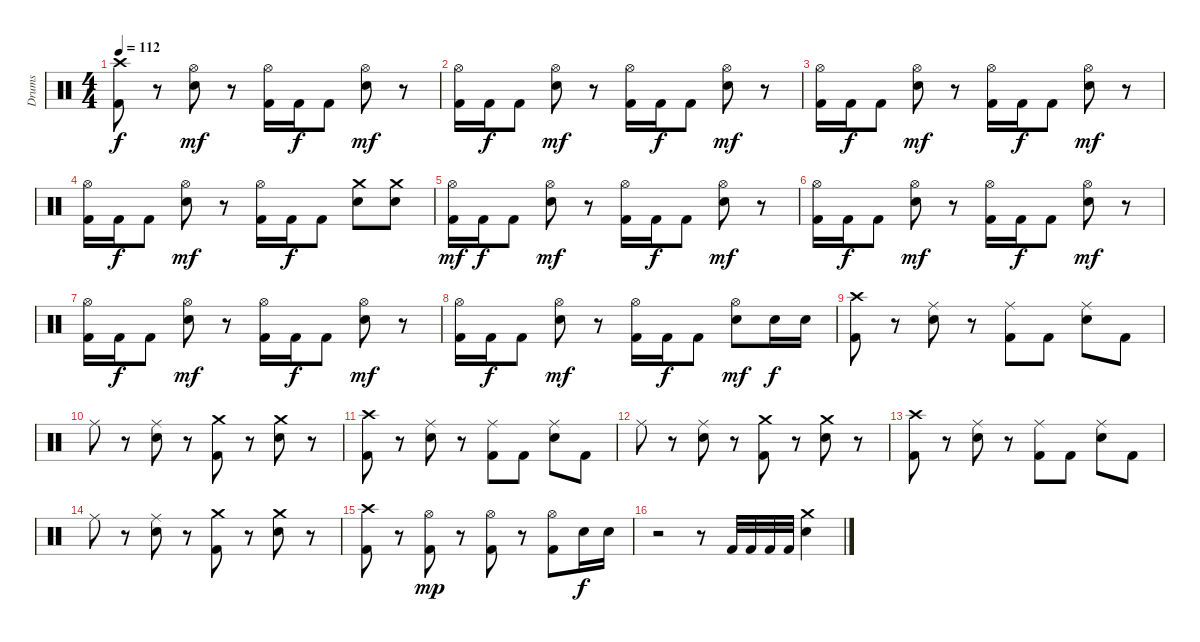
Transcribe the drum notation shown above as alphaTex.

\track ("Drums" "Drums") {instrument percussion}
\staff {score}
\articulation defaults
\ts (4 4)
\tempo 112
\clef neutral
\ks c
("Crash high (hit)" "Kick (hit) 2").8{dy f} r.8 ("Hi-Hat (open)" "Electric Snare (hit)").8{dy mf} r.8 ("Hi-Hat (open)" "Kick (hit) 2").16 "Kick (hit) 2".16{dy f} "Kick (hit) 2".8 ("Hi-Hat (open)" "Electric Snare (hit)").8{dy mf} r.8 |
("Hi-Hat (open)" "Kick (hit) 2").16 "Kick (hit) 2".16{dy f} "Kick (hit) 2".8 ("Hi-Hat (open)" "Electric Snare (hit)").8{dy mf} r.8 ("Hi-Hat (open)" "Kick (hit) 2").16 "Kick (hit) 2".16{dy f} "Kick (hit) 2".8 ("Hi-Hat (open)" "Electric Snare (hit)").8{dy mf} r.8 |
("Hi-Hat (open)" "Kick (hit) 2").16 "Kick (hit) 2".16{dy f} "Kick (hit) 2".8 ("Hi-Hat (open)" "Electric Snare (hit)").8{dy mf} r.8 ("Hi-Hat (open)" "Kick (hit) 2").16 "Kick (hit) 2".16{dy f} "Kick (hit) 2".8 ("Hi-Hat (open)" "Electric Snare (hit)").8{dy mf} r.8 |
("Hi-Hat (open)" "Kick (hit) 2").16 "Kick (hit) 2".16{dy f} "Kick (hit) 2".8 ("Hi-Hat (open)" "Electric Snare (hit)").8{dy mf} r.8 ("Hi-Hat (open)" "Kick (hit) 2").16 "Kick (hit) 2".16{dy f} "Kick (hit) 2".8 ("Crash medium (hit)" "Electric Snare (hit)").8 ("Crash medium (hit)" "Electric Snare (hit)").8 |
("Hi-Hat (open)" "Kick (hit) 2").16{dy mf} "Kick (hit) 2".16{dy f} "Kick (hit) 2".8 ("Hi-Hat (open)" "Electric Snare (hit)").8{dy mf} r.8 ("Hi-Hat (open)" "Kick (hit) 2").16 "Kick (hit) 2".16{dy f} "Kick (hit) 2".8 ("Hi-Hat (open)" "Electric Snare (hit)").8{dy mf} r.8 |
("Hi-Hat (open)" "Kick (hit) 2").16 "Kick (hit) 2".16{dy f} "Kick (hit) 2".8 ("Hi-Hat (open)" "Electric Snare (hit)").8{dy mf} r.8 ("Hi-Hat (open)" "Kick (hit) 2").16 "Kick (hit) 2".16{dy f} "Kick (hit) 2".8 ("Hi-Hat (open)" "Electric Snare (hit)").8{dy mf} r.8 |
("Hi-Hat (open)" "Kick (hit) 2").16 "Kick (hit) 2".16{dy f} "Kick (hit) 2".8 ("Hi-Hat (open)" "Electric Snare (hit)").8{dy mf} r.8 ("Hi-Hat (open)" "Kick (hit) 2").16 "Kick (hit) 2".16{dy f} "Kick (hit) 2".8 ("Hi-Hat (open)" "Electric Snare (hit)").8{dy mf} r.8 |
("Hi-Hat (open)" "Kick (hit) 2").16 "Kick (hit) 2".16{dy f} "Kick (hit) 2".8 ("Hi-Hat (open)" "Electric Snare (hit)").8{dy mf} r.8 ("Hi-Hat (open)" "Kick (hit) 2").16 "Kick (hit) 2".16{dy f} "Kick (hit) 2".8 ("Hi-Hat (open)" "Electric Snare (hit)").8{dy mf} "Electric Snare (hit)".16{dy f} "Electric Snare (hit)".16 |
("Crash high (hit)" "Kick (hit) 2").8 r.8 ("Ride (middle)" "Electric Snare (hit)").8 r.8 ("Ride (middle)" "Kick (hit) 2").8 "Kick (hit) 2".8 ("Ride (middle)" "Electric Snare (hit)").8 "Kick (hit) 2".8 |
"Ride (middle)".8 r.8 ("Ride (middle)" "Electric Snare (hit)").8 r.8 ("Crash medium (hit)" "Kick (hit) 2").8 r.8 ("Crash medium (hit)" "Electric Snare (hit)").8 r.8 |
("Crash high (hit)" "Kick (hit) 2").8 r.8 ("Ride (middle)" "Electric Snare (hit)").8 r.8 ("Ride (middle)" "Kick (hit) 2").8 "Kick (hit) 2".8 ("Ride (middle)" "Electric Snare (hit)").8 "Kick (hit) 2".8 |
"Ride (middle)".8 r.8 ("Ride (middle)" "Electric Snare (hit)").8 r.8 ("Crash medium (hit)" "Kick (hit) 2").8 r.8 ("Crash medium (hit)" "Electric Snare (hit)").8 r.8 |
("Crash high (hit)" "Kick (hit) 2").8 r.8 ("Ride (middle)" "Electric Snare (hit)").8 r.8 ("Ride (middle)" "Kick (hit) 2").8 "Kick (hit) 2".8 ("Ride (middle)" "Electric Snare (hit)").8 "Kick (hit) 2".8 |
"Ride (middle)".8 r.8 ("Ride (middle)" "Electric Snare (hit)").8 r.8 ("Crash medium (hit)" "Kick (hit) 2").8 r.8 ("Crash medium (hit)" "Electric Snare (hit)").8 r.8 |
("Crash high (hit)" "Kick (hit) 2").8 r.8 ("Hi-Hat (open)" "Kick (hit) 2").8{dy mp} r.8 ("Hi-Hat (open)" "Kick (hit) 2").8 r.8 ("Hi-Hat (open)" "Kick (hit) 2").8 "Electric Snare (hit)".16{dy f} "Electric Snare (hit)".16 |
r.2 r.8 "Kick (hit) 2".32 "Kick (hit) 2".32 "Kick (hit) 2".32 "Kick (hit) 2".32 ("Crash medium (hit)" "Electric Snare (hit)").4
